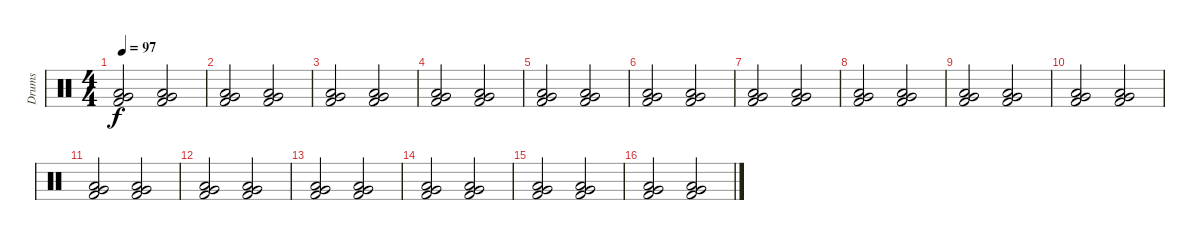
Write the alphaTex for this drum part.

\track ("Drums" "Drums") {solo instrument percussion}
\staff {score}
\articulation defaults
\ts (4 4)
\tempo 97
\clef neutral
\ks c
("Kick (hit) 2" "Low Floor Tom (hit)" "Very Low Tom (hit)").2{dy f} ("Kick (hit) 2" "Low Floor Tom (hit)" "Very Low Tom (hit)").2 |
("Kick (hit) 2" "Low Floor Tom (hit)" "Very Low Tom (hit)").2 ("Kick (hit) 2" "Low Floor Tom (hit)" "Very Low Tom (hit)").2 |
("Kick (hit) 2" "Low Floor Tom (hit)" "Very Low Tom (hit)").2 ("Kick (hit) 2" "Low Floor Tom (hit)" "Very Low Tom (hit)").2 |
("Kick (hit) 2" "Low Floor Tom (hit)" "Very Low Tom (hit)").2 ("Kick (hit) 2" "Low Floor Tom (hit)" "Very Low Tom (hit)").2 |
("Kick (hit) 2" "Low Floor Tom (hit)" "Very Low Tom (hit)").2 ("Kick (hit) 2" "Low Floor Tom (hit)" "Very Low Tom (hit)").2 |
("Kick (hit) 2" "Low Floor Tom (hit)" "Very Low Tom (hit)").2 ("Kick (hit) 2" "Low Floor Tom (hit)" "Very Low Tom (hit)").2 |
("Kick (hit) 2" "Low Floor Tom (hit)" "Very Low Tom (hit)").2 ("Kick (hit) 2" "Low Floor Tom (hit)" "Very Low Tom (hit)").2 |
("Kick (hit) 2" "Low Floor Tom (hit)" "Very Low Tom (hit)").2 ("Kick (hit) 2" "Low Floor Tom (hit)" "Very Low Tom (hit)").2 |
("Kick (hit) 2" "Low Floor Tom (hit)" "Very Low Tom (hit)").2 ("Kick (hit) 2" "Low Floor Tom (hit)" "Very Low Tom (hit)").2 |
("Kick (hit) 2" "Low Floor Tom (hit)" "Very Low Tom (hit)").2 ("Kick (hit) 2" "Low Floor Tom (hit)" "Very Low Tom (hit)").2 |
("Kick (hit) 2" "Low Floor Tom (hit)" "Very Low Tom (hit)").2 ("Kick (hit) 2" "Low Floor Tom (hit)" "Very Low Tom (hit)").2 |
("Kick (hit) 2" "Low Floor Tom (hit)" "Very Low Tom (hit)").2 ("Kick (hit) 2" "Low Floor Tom (hit)" "Very Low Tom (hit)").2 |
("Kick (hit) 2" "Low Floor Tom (hit)" "Very Low Tom (hit)").2 ("Kick (hit) 2" "Low Floor Tom (hit)" "Very Low Tom (hit)").2 |
("Kick (hit) 2" "Low Floor Tom (hit)" "Very Low Tom (hit)").2 ("Kick (hit) 2" "Low Floor Tom (hit)" "Very Low Tom (hit)").2 |
("Kick (hit) 2" "Low Floor Tom (hit)" "Very Low Tom (hit)").2 ("Kick (hit) 2" "Low Floor Tom (hit)" "Very Low Tom (hit)").2 |
("Kick (hit) 2" "Low Floor Tom (hit)" "Very Low Tom (hit)").2 ("Kick (hit) 2" "Low Floor Tom (hit)" "Very Low Tom (hit)").2
